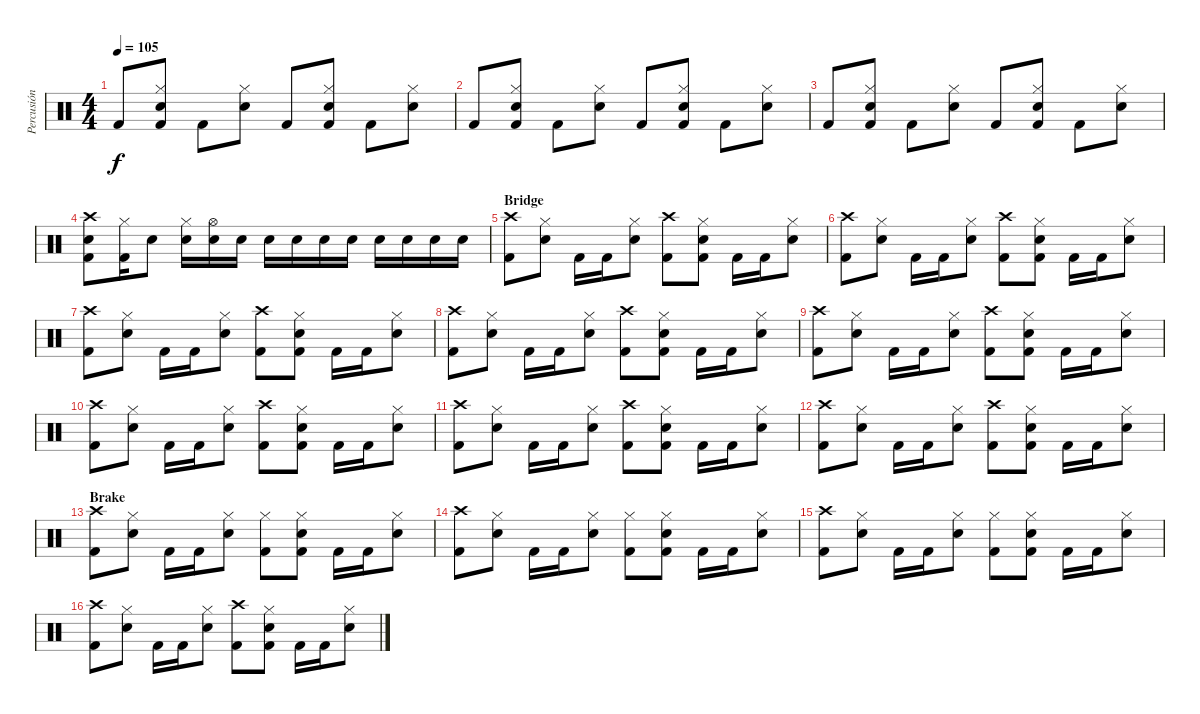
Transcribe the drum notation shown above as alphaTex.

\track ("Percusión" "Percusión") {instrument percussion}
\staff {score}
\articulation defaults
\ts (4 4)
\tempo 105
\clef neutral
\ks c "Kick (hit) 2".8{dy f}
("Hi-Hat (closed)" "Snare (hit) 2" "Kick (hit) 2").8 "Kick (hit) 2".8 ("Hi-Hat (closed)" "Snare (hit) 2").8 "Kick (hit) 2".8 ("Hi-Hat (closed)" "Snare (hit) 2" "Kick (hit) 2").8 "Kick (hit) 2".8 ("Hi-Hat (closed)" "Snare (hit) 2").8 |
"Kick (hit) 2".8 ("Hi-Hat (closed)" "Snare (hit) 2" "Kick (hit) 2").8 "Kick (hit) 2".8 ("Hi-Hat (closed)" "Snare (hit) 2").8 "Kick (hit) 2".8 ("Hi-Hat (closed)" "Snare (hit) 2" "Kick (hit) 2").8 "Kick (hit) 2".8 ("Hi-Hat (closed)" "Snare (hit) 2").8 |
"Kick (hit) 2".8 ("Hi-Hat (closed)" "Snare (hit) 2" "Kick (hit) 2").8 "Kick (hit) 2".8 ("Hi-Hat (closed)" "Snare (hit) 2").8 "Kick (hit) 2".8 ("Hi-Hat (closed)" "Snare (hit) 2" "Kick (hit) 2").8 "Kick (hit) 2".8 ("Hi-Hat (closed)" "Snare (hit) 2").8 |
("Crash high (hit)" "Snare (hit) 2" "Kick (hit) 2").8 ("Hi-Hat (closed)" "Kick (hit) 2").16 "Snare (hit) 2".8 ("Hi-Hat (closed)" "Snare (hit) 2").16 ("Hi-Hat (open)" "Snare (hit) 2").16 "Snare (hit) 2".16 "Snare (hit) 2".16 "Snare (hit) 2".16 "Snare (hit) 2".16 "Snare (hit) 2".16 "Snare (hit) 2".16 "Snare (hit) 2".16 "Snare (hit) 2".16 "Snare (hit) 2".16 |
\section ("" "Bridge")
("Crash high (hit)" "Kick (hit) 2").8 ("Hi-Hat (closed)" "Snare (hit) 2").8 "Kick (hit) 2".16 "Kick (hit) 2".16 ("Hi-Hat (closed)" "Snare (hit) 2").8 ("Crash high (hit)" "Kick (hit) 2").8 ("Hi-Hat (closed)" "Snare (hit) 2" "Kick (hit) 2").8 "Kick (hit) 2".16 "Kick (hit) 2".16 ("Hi-Hat (closed)" "Snare (hit) 2").8 |
("Crash high (hit)" "Kick (hit) 2").8 ("Hi-Hat (closed)" "Snare (hit) 2").8 "Kick (hit) 2".16 "Kick (hit) 2".16 ("Hi-Hat (closed)" "Snare (hit) 2").8 ("Crash high (hit)" "Kick (hit) 2").8 ("Hi-Hat (closed)" "Snare (hit) 2" "Kick (hit) 2").8 "Kick (hit) 2".16 "Kick (hit) 2".16 ("Hi-Hat (closed)" "Snare (hit) 2").8 |
("Crash high (hit)" "Kick (hit) 2").8 ("Hi-Hat (closed)" "Snare (hit) 2").8 "Kick (hit) 2".16 "Kick (hit) 2".16 ("Hi-Hat (closed)" "Snare (hit) 2").8 ("Crash high (hit)" "Kick (hit) 2").8 ("Hi-Hat (closed)" "Snare (hit) 2" "Kick (hit) 2").8 "Kick (hit) 2".16 "Kick (hit) 2".16 ("Hi-Hat (closed)" "Snare (hit) 2").8 |
("Crash high (hit)" "Kick (hit) 2").8 ("Hi-Hat (closed)" "Snare (hit) 2").8 "Kick (hit) 2".16 "Kick (hit) 2".16 ("Hi-Hat (closed)" "Snare (hit) 2").8 ("Crash high (hit)" "Kick (hit) 2").8 ("Hi-Hat (closed)" "Snare (hit) 2" "Kick (hit) 2").8 "Kick (hit) 2".16 "Kick (hit) 2".16 ("Hi-Hat (closed)" "Snare (hit) 2").8 |
("Crash high (hit)" "Kick (hit) 2").8 ("Hi-Hat (closed)" "Snare (hit) 2").8 "Kick (hit) 2".16 "Kick (hit) 2".16 ("Hi-Hat (closed)" "Snare (hit) 2").8 ("Crash high (hit)" "Kick (hit) 2").8 ("Hi-Hat (closed)" "Snare (hit) 2" "Kick (hit) 2").8 "Kick (hit) 2".16 "Kick (hit) 2".16 ("Hi-Hat (closed)" "Snare (hit) 2").8 |
("Crash high (hit)" "Kick (hit) 2").8 ("Hi-Hat (closed)" "Snare (hit) 2").8 "Kick (hit) 2".16 "Kick (hit) 2".16 ("Hi-Hat (closed)" "Snare (hit) 2").8 ("Crash high (hit)" "Kick (hit) 2").8 ("Hi-Hat (closed)" "Snare (hit) 2" "Kick (hit) 2").8 "Kick (hit) 2".16 "Kick (hit) 2".16 ("Hi-Hat (closed)" "Snare (hit) 2").8 |
("Crash high (hit)" "Kick (hit) 2").8 ("Hi-Hat (closed)" "Snare (hit) 2").8 "Kick (hit) 2".16 "Kick (hit) 2".16 ("Hi-Hat (closed)" "Snare (hit) 2").8 ("Crash high (hit)" "Kick (hit) 2").8 ("Hi-Hat (closed)" "Snare (hit) 2" "Kick (hit) 2").8 "Kick (hit) 2".16 "Kick (hit) 2".16 ("Hi-Hat (closed)" "Snare (hit) 2").8 |
("Crash high (hit)" "Kick (hit) 2").8 ("Hi-Hat (closed)" "Snare (hit) 2").8 "Kick (hit) 2".16 "Kick (hit) 2".16 ("Hi-Hat (closed)" "Snare (hit) 2").8 ("Crash high (hit)" "Kick (hit) 2").8 ("Hi-Hat (closed)" "Snare (hit) 2" "Kick (hit) 2").8 "Kick (hit) 2".16 "Kick (hit) 2".16 ("Hi-Hat (closed)" "Snare (hit) 2").8 |
\section ("" "Brake")
("Crash high (hit)" "Kick (hit) 2").8 ("Hi-Hat (closed)" "Snare (hit) 2").8 "Kick (hit) 2".16 "Kick (hit) 2".16 ("Hi-Hat (closed)" "Snare (hit) 2").8 ("Hi-Hat (closed)" "Kick (hit) 2").8 ("Hi-Hat (closed)" "Snare (hit) 2" "Kick (hit) 2").8 "Kick (hit) 2".16 "Kick (hit) 2".16 ("Hi-Hat (closed)" "Snare (hit) 2").8 |
("Crash high (hit)" "Kick (hit) 2").8 ("Hi-Hat (closed)" "Snare (hit) 2").8 "Kick (hit) 2".16 "Kick (hit) 2".16 ("Hi-Hat (closed)" "Snare (hit) 2").8 ("Hi-Hat (closed)" "Kick (hit) 2").8 ("Hi-Hat (closed)" "Snare (hit) 2" "Kick (hit) 2").8 "Kick (hit) 2".16 "Kick (hit) 2".16 ("Hi-Hat (closed)" "Snare (hit) 2").8 |
("Crash high (hit)" "Kick (hit) 2").8 ("Hi-Hat (closed)" "Snare (hit) 2").8 "Kick (hit) 2".16 "Kick (hit) 2".16 ("Hi-Hat (closed)" "Snare (hit) 2").8 ("Hi-Hat (closed)" "Kick (hit) 2").8 ("Hi-Hat (closed)" "Snare (hit) 2" "Kick (hit) 2").8 "Kick (hit) 2".16 "Kick (hit) 2".16 ("Hi-Hat (closed)" "Snare (hit) 2").8 |
("Crash high (hit)" "Kick (hit) 2").8 ("Hi-Hat (closed)" "Snare (hit) 2").8 "Kick (hit) 2".16 "Kick (hit) 2".16 ("Hi-Hat (closed)" "Snare (hit) 2").8 ("Crash high (hit)" "Kick (hit) 2").8 ("Hi-Hat (closed)" "Snare (hit) 2" "Kick (hit) 2").8 "Kick (hit) 2".16 "Kick (hit) 2".16 ("Hi-Hat (closed)" "Snare (hit) 2").8
